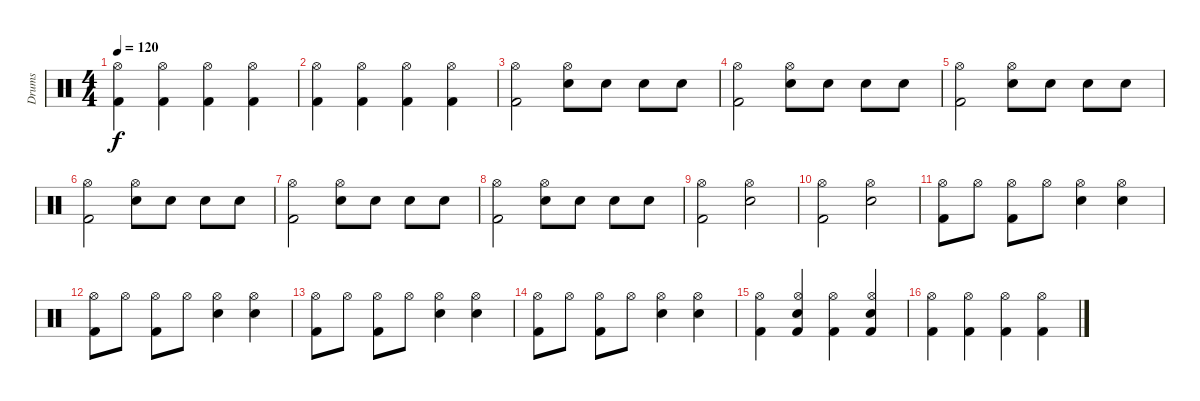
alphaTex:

\track ("Drums" "Drums") {instrument percussion}
\staff {score}
\articulation defaults
\ts (4 4)
\tempo 120
\clef neutral
\ks c
("Kick (hit) 2" "Hi-Hat (open)").4{dy f} ("Kick (hit) 2" "Hi-Hat (open)").4 ("Kick (hit) 2" "Hi-Hat (open)").4 ("Kick (hit) 2" "Hi-Hat (open)").4 |
("Kick (hit) 2" "Hi-Hat (open)").4 ("Kick (hit) 2" "Hi-Hat (open)").4 ("Kick (hit) 2" "Hi-Hat (open)").4 ("Kick (hit) 2" "Hi-Hat (open)").4 |
("Hi-Hat (open)" "Kick (hit) 2").2 ("Hi-Hat (open)" "Electric Snare (hit)").8 "Electric Snare (hit)".8 "Electric Snare (hit)".8 "Electric Snare (hit)".8 |
("Hi-Hat (open)" "Kick (hit) 2").2 ("Hi-Hat (open)" "Electric Snare (hit)").8 "Electric Snare (hit)".8 "Electric Snare (hit)".8 "Electric Snare (hit)".8 |
("Hi-Hat (open)" "Kick (hit) 2").2 ("Hi-Hat (open)" "Electric Snare (hit)").8 "Electric Snare (hit)".8 "Electric Snare (hit)".8 "Electric Snare (hit)".8 |
("Hi-Hat (open)" "Kick (hit) 2").2 ("Hi-Hat (open)" "Electric Snare (hit)").8 "Electric Snare (hit)".8 "Electric Snare (hit)".8 "Electric Snare (hit)".8 |
("Hi-Hat (open)" "Kick (hit) 2").2 ("Hi-Hat (open)" "Electric Snare (hit)").8 "Electric Snare (hit)".8 "Electric Snare (hit)".8 "Electric Snare (hit)".8 |
("Hi-Hat (open)" "Kick (hit) 2").2 ("Hi-Hat (open)" "Electric Snare (hit)").8 "Electric Snare (hit)".8 "Electric Snare (hit)".8 "Electric Snare (hit)".8 |
("Hi-Hat (open)" "Kick (hit) 2").2 ("Hi-Hat (open)" "Electric Snare (hit)").2 |
("Hi-Hat (open)" "Kick (hit) 2").2 ("Hi-Hat (open)" "Electric Snare (hit)").2 |
("Hi-Hat (open)" "Kick (hit) 2").8 "Hi-Hat (open)".8 ("Hi-Hat (open)" "Kick (hit) 2").8 "Hi-Hat (open)".8 ("Hi-Hat (open)" "Electric Snare (hit)").4 ("Hi-Hat (open)" "Electric Snare (hit)").4 |
("Hi-Hat (open)" "Kick (hit) 2").8 "Hi-Hat (open)".8 ("Hi-Hat (open)" "Kick (hit) 2").8 "Hi-Hat (open)".8 ("Hi-Hat (open)" "Electric Snare (hit)").4 ("Hi-Hat (open)" "Electric Snare (hit)").4 |
("Hi-Hat (open)" "Kick (hit) 2").8 "Hi-Hat (open)".8 ("Hi-Hat (open)" "Kick (hit) 2").8 "Hi-Hat (open)".8 ("Hi-Hat (open)" "Electric Snare (hit)").4 ("Hi-Hat (open)" "Electric Snare (hit)").4 |
("Hi-Hat (open)" "Kick (hit) 2").8 "Hi-Hat (open)".8 ("Hi-Hat (open)" "Kick (hit) 2").8 "Hi-Hat (open)".8 ("Hi-Hat (open)" "Electric Snare (hit)").4 ("Hi-Hat (open)" "Electric Snare (hit)").4 |
("Kick (hit) 2" "Hi-Hat (open)").4 ("Kick (hit) 2" "Hi-Hat (open)" "Electric Snare (hit)").4 ("Kick (hit) 2" "Hi-Hat (open)").4 ("Kick (hit) 2" "Hi-Hat (open)" "Electric Snare (hit)").4 |
("Kick (hit) 2" "Hi-Hat (open)").4 ("Kick (hit) 2" "Hi-Hat (open)").4 ("Kick (hit) 2" "Hi-Hat (open)").4 ("Kick (hit) 2" "Hi-Hat (open)").4
